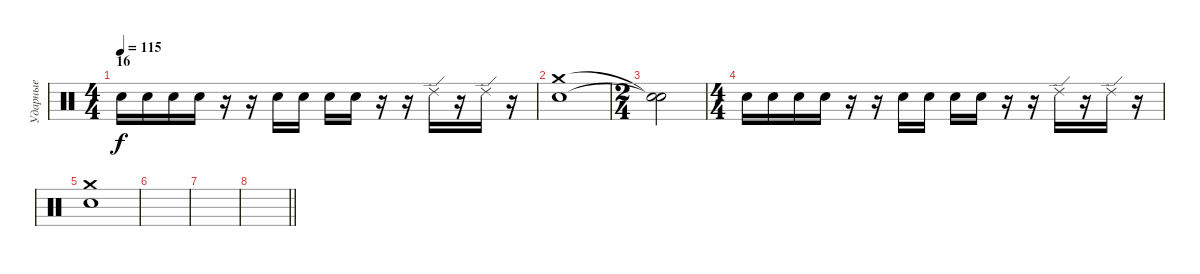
\track ("Ударные" "Ударные") {instrument percussion}
\staff {score}
\articulation defaults
\ts (4 4)
\section ("" "16")
\tempo 115
\clef neutral
\ks c "Snare (hit) 2".16{dy f} "Snare (hit) 2".16 "Snare (hit) 2".16 "Snare (hit) 2".16
r.16 r.16 "Snare (hit) 2".16 "Snare (hit) 2".16 "Snare (hit) 2".16 "Snare (hit) 2".16 r.16 r.16 "Ride (edge) 2".16 r.16 "Ride (edge) 2".16 r.16 |
("Crash medium (hit)" "Snare (hit) 2").1 |
\ts (2 4)
("Snare (hit)"{t} "Snare (hit)"{t}).2 |
\ts (4 4)
"Snare (hit) 2".16 "Snare (hit) 2".16 "Snare (hit) 2".16 "Snare (hit) 2".16 r.16 r.16 "Snare (hit) 2".16 "Snare (hit) 2".16 "Snare (hit) 2".16 "Snare (hit) 2".16 r.16 r.16 "Ride (edge) 2".16 r.16 "Ride (edge) 2".16 r.16 |
("Crash medium (hit)" "Snare (hit) 2").1 |
|
|
\barLineRight lightlight
